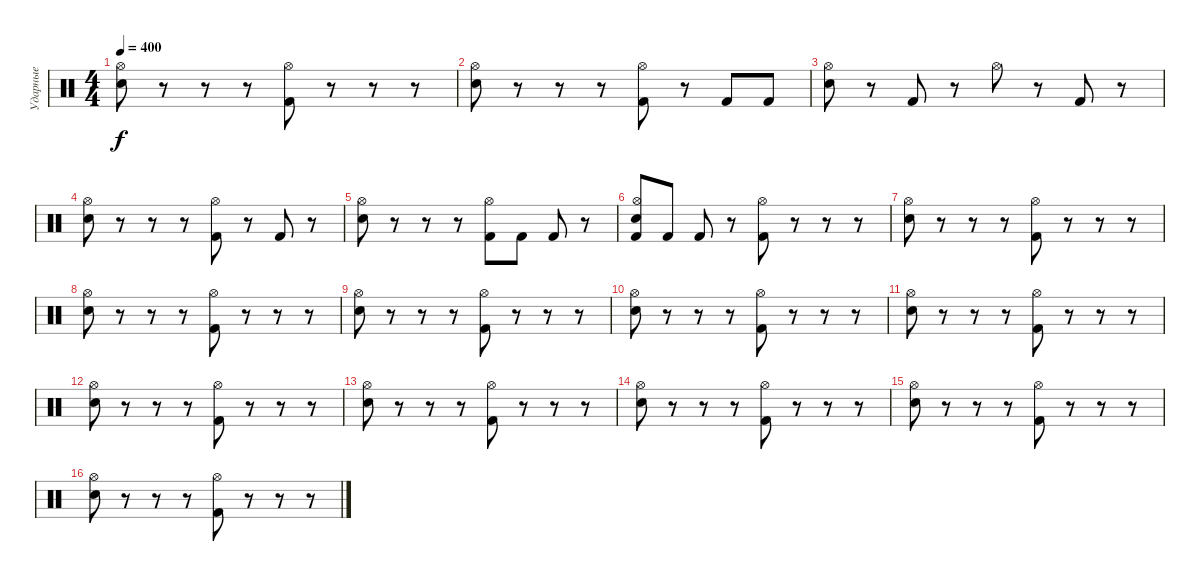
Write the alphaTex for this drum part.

\track ("Ударные" "Ударные") {instrument percussion}
\staff {score}
\articulation defaults
\ts (4 4)
\tempo 400
\clef neutral
\ks c
("Electric Snare (hit)" "Hi-Hat (open)").8{dy f} r.8 r.8 r.8 ("Kick (hit) 2" "Hi-Hat (open)").8 r.8 r.8 r.8 |
("Electric Snare (hit)" "Hi-Hat (open)").8 r.8 r.8 r.8 ("Kick (hit) 2" "Hi-Hat (open)").8 r.8 "Kick (hit) 2".8 "Kick (hit) 2".8 |
("Electric Snare (hit)" "Hi-Hat (open)").8 r.8 "Kick (hit) 2".8 r.8 "Hi-Hat (open)".8 r.8 "Kick (hit) 2".8 r.8 |
("Electric Snare (hit)" "Hi-Hat (open)").8 r.8 r.8 r.8 ("Kick (hit) 2" "Hi-Hat (open)").8 r.8 "Kick (hit) 2".8 r.8 |
("Electric Snare (hit)" "Hi-Hat (open)").8 r.8 r.8 r.8 ("Kick (hit) 2" "Hi-Hat (open)").8 "Kick (hit) 2".8 "Kick (hit) 2".8 r.8 |
("Kick (hit) 2" "Electric Snare (hit)" "Hi-Hat (open)").8 "Kick (hit) 2".8 "Kick (hit) 2".8 r.8 ("Kick (hit) 2" "Hi-Hat (open)").8 r.8 r.8 r.8 |
("Electric Snare (hit)" "Hi-Hat (open)").8 r.8 r.8 r.8 ("Kick (hit) 2" "Hi-Hat (open)").8 r.8 r.8 r.8 |
("Electric Snare (hit)" "Hi-Hat (open)").8 r.8 r.8 r.8 ("Kick (hit) 2" "Hi-Hat (open)").8 r.8 r.8 r.8 |
("Electric Snare (hit)" "Hi-Hat (open)").8 r.8 r.8 r.8 ("Kick (hit) 2" "Hi-Hat (open)").8 r.8 r.8 r.8 |
("Electric Snare (hit)" "Hi-Hat (open)").8 r.8 r.8 r.8 ("Kick (hit) 2" "Hi-Hat (open)").8 r.8 r.8 r.8 |
("Electric Snare (hit)" "Hi-Hat (open)").8 r.8 r.8 r.8 ("Kick (hit) 2" "Hi-Hat (open)").8 r.8 r.8 r.8 |
("Electric Snare (hit)" "Hi-Hat (open)").8 r.8 r.8 r.8 ("Kick (hit) 2" "Hi-Hat (open)").8 r.8 r.8 r.8 |
("Electric Snare (hit)" "Hi-Hat (open)").8 r.8 r.8 r.8 ("Kick (hit) 2" "Hi-Hat (open)").8 r.8 r.8 r.8 |
("Electric Snare (hit)" "Hi-Hat (open)").8 r.8 r.8 r.8 ("Kick (hit) 2" "Hi-Hat (open)").8 r.8 r.8 r.8 |
("Electric Snare (hit)" "Hi-Hat (open)").8 r.8 r.8 r.8 ("Kick (hit) 2" "Hi-Hat (open)").8 r.8 r.8 r.8 |
("Electric Snare (hit)" "Hi-Hat (open)").8 r.8 r.8 r.8 ("Kick (hit) 2" "Hi-Hat (open)").8 r.8 r.8 r.8
